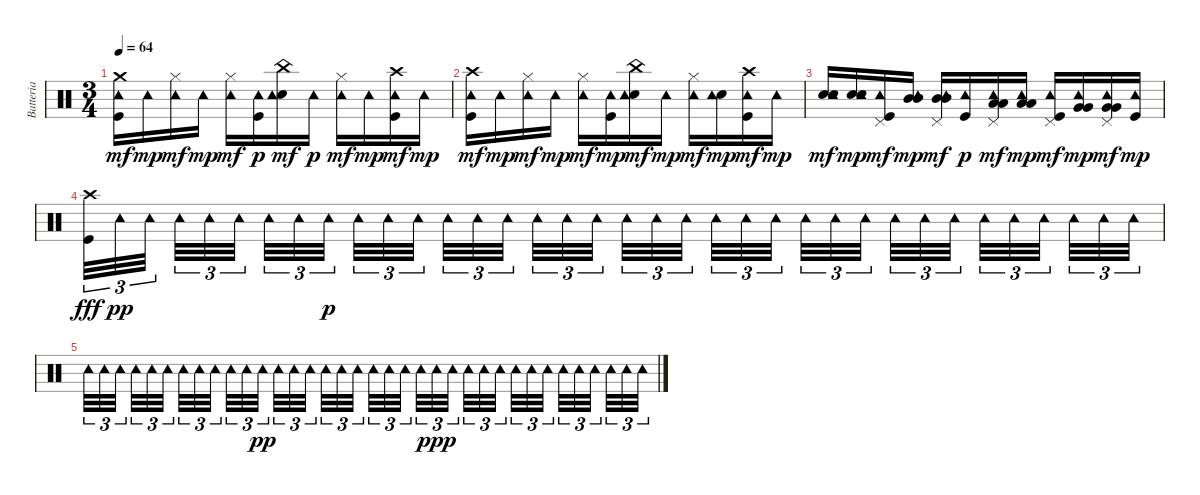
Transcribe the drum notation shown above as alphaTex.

\track ("Batteria" "Batteria") {instrument percussion}
\staff {score}
\articulation defaults
\ts (3 4)
\tempo 64
\clef neutral
\ks c
("Kick (hit)" "Crash medium (hit)" "Tambourine (hit)").16{dy mf} "Tambourine (hit)".16{dy mp} ("Hi-Hat (closed)" "Tambourine (hit)").16{dy mf} "Tambourine (hit)".16{dy mp} ("Hi-Hat (closed)" "Tambourine (hit)").16{dy mf} ("Kick (hit)" "Tambourine (hit)").16{dy p} ("Electric Snare (hit)" "China (hit)" "Tambourine (hit)").16{dy mf} "Tambourine (hit)".16{dy p} ("Hi-Hat (closed)" "Tambourine (hit)").16{dy mf} "Tambourine (hit)".16{dy mp} ("Kick (hit)" "Crash high (hit)" "Tambourine (hit)").16{dy mf} "Tambourine (hit)".16{dy mp} |
("Kick (hit)" "Crash high (hit)" "Tambourine (hit)").16{dy mf} "Tambourine (hit)".16{dy mp} ("Hi-Hat (closed)" "Tambourine (hit)").16{dy mf} "Tambourine (hit)".16{dy mp} ("Hi-Hat (closed)" "Tambourine (hit)").16{dy mf} ("Kick (hit)" "Tambourine (hit)").16{dy mp} ("Electric Snare (hit)" "China (hit)" "Tambourine (hit)").16{dy mf} "Tambourine (hit)".16{dy mp} ("Hi-Hat (closed)" "Tambourine (hit)").16{dy mf} ("Electric Snare (hit)" "Tambourine (hit)").16{dy mp} ("Kick (hit)" "Crash high (hit)" "Tambourine (hit)").16{dy mf} "Tambourine (hit)".16{dy mp} |
("Electric Snare (hit)" "Electric Snare (hit)" "Tambourine (hit)").16{dy mf} ("Electric Snare (hit)" "Electric Snare (hit)" "Tambourine (hit)").16{dy mp} ("Kick (hit)" "Pedal Hi-Hat (hit)" "Tambourine (hit)").16{dy mf} ("Mid Tom (hit)" "Mid Tom (hit)" "Tambourine (hit)").16{dy mp} ("Mid Tom (hit)" "Pedal Hi-Hat (hit)" "Mid Tom (hit)" "Tambourine (hit)").16{dy mf} ("Kick (hit)" "Tambourine (hit)").16{dy p} ("Low Tom (hit)" "Pedal Hi-Hat (hit)" "Low Tom (hit)" "Tambourine (hit)").16{dy mf} ("Low Tom (hit)" "Low Tom (hit)" "Tambourine (hit)").16{dy mp} ("Kick (hit)" "Pedal Hi-Hat (hit)" "Tambourine (hit)").16{dy mf} ("Very Low Tom (hit)" "Very Low Tom (hit)" "Tambourine (hit)").16{dy mp} ("Very Low Tom (hit)" "Pedal Hi-Hat (hit)" "Very Low Tom (hit)" "Tambourine (hit)").16{dy mf} ("Kick (hit)" "Tambourine (hit)").16{dy mp} |
("Kick (hit)" "Crash high (hit)").32{tu (3 2) dy fff} "Tambourine (hit)".32{tu (3 2) dy pp} "Tambourine (hit)".32{tu (3 2) beam splitsecondary} "Tambourine (hit)".32{tu (3 2)} "Tambourine (hit)".32{tu (3 2)} "Tambourine (hit)".32{tu (3 2) beam splitsecondary} "Tambourine (hit)".32{tu (3 2)} "Tambourine (hit)".32{tu (3 2)} "Tambourine (hit)".32{tu (3 2) dy p beam splitsecondary} "Tambourine (hit)".32{tu (3 2)} "Tambourine (hit)".32{tu (3 2)} "Tambourine (hit)".32{tu (3 2)} "Tambourine (hit)".32{tu (3 2)} "Tambourine (hit)".32{tu (3 2)} "Tambourine (hit)".32{tu (3 2) beam splitsecondary} "Tambourine (hit)".32{tu (3 2)} "Tambourine (hit)".32{tu (3 2)} "Tambourine (hit)".32{tu (3 2) beam splitsecondary} "Tambourine (hit)".32{tu (3 2)} "Tambourine (hit)".32{tu (3 2)} "Tambourine (hit)".32{tu (3 2) beam splitsecondary} "Tambourine (hit)".32{tu (3 2)} "Tambourine (hit)".32{tu (3 2)} "Tambourine (hit)".32{tu (3 2)} "Tambourine (hit)".32{tu (3 2)} "Tambourine (hit)".32{tu (3 2)} "Tambourine (hit)".32{tu (3 2) beam splitsecondary} "Tambourine (hit)".32{tu (3 2)} "Tambourine (hit)".32{tu (3 2)} "Tambourine (hit)".32{tu (3 2) beam splitsecondary} "Tambourine (hit)".32{tu (3 2)} "Tambourine (hit)".32{tu (3 2)} "Tambourine (hit)".32{tu (3 2) beam splitsecondary} "Tambourine (hit)".32{tu (3 2)} "Tambourine (hit)".32{tu (3 2)} "Tambourine (hit)".32{tu (3 2)} |
"Tambourine (hit)".32{tu (3 2)} "Tambourine (hit)".32{tu (3 2)} "Tambourine (hit)".32{tu (3 2) beam splitsecondary} "Tambourine (hit)".32{tu (3 2)} "Tambourine (hit)".32{tu (3 2)} "Tambourine (hit)".32{tu (3 2) beam splitsecondary} "Tambourine (hit)".32{tu (3 2)} "Tambourine (hit)".32{tu (3 2)} "Tambourine (hit)".32{tu (3 2) beam splitsecondary} "Tambourine (hit)".32{tu (3 2)} "Tambourine (hit)".32{tu (3 2)} "Tambourine (hit)".32{tu (3 2) dy pp} "Tambourine (hit)".32{tu (3 2)} "Tambourine (hit)".32{tu (3 2)} "Tambourine (hit)".32{tu (3 2) beam splitsecondary} "Tambourine (hit)".32{tu (3 2)} "Tambourine (hit)".32{tu (3 2)} "Tambourine (hit)".32{tu (3 2) beam splitsecondary} "Tambourine (hit)".32{tu (3 2)} "Tambourine (hit)".32{tu (3 2)} "Tambourine (hit)".32{tu (3 2) beam splitsecondary} "Tambourine (hit)".32{tu (3 2)} "Tambourine (hit)".32{tu (3 2) dy ppp} "Tambourine (hit)".32{tu (3 2)} "Tambourine (hit)".32{tu (3 2)} "Tambourine (hit)".32{tu (3 2)} "Tambourine (hit)".32{tu (3 2) beam splitsecondary} "Tambourine (hit)".32{tu (3 2)} "Tambourine (hit)".32{tu (3 2)} "Tambourine (hit)".32{tu (3 2) beam splitsecondary} "Tambourine (hit)".32{tu (3 2)} "Tambourine (hit)".32{tu (3 2)} "Tambourine (hit)".32{tu (3 2) beam splitsecondary} "Tambourine (hit)".32{tu (3 2)} "Tambourine (hit)".32{tu (3 2)} "Tambourine (hit)".32{tu (3 2)}
